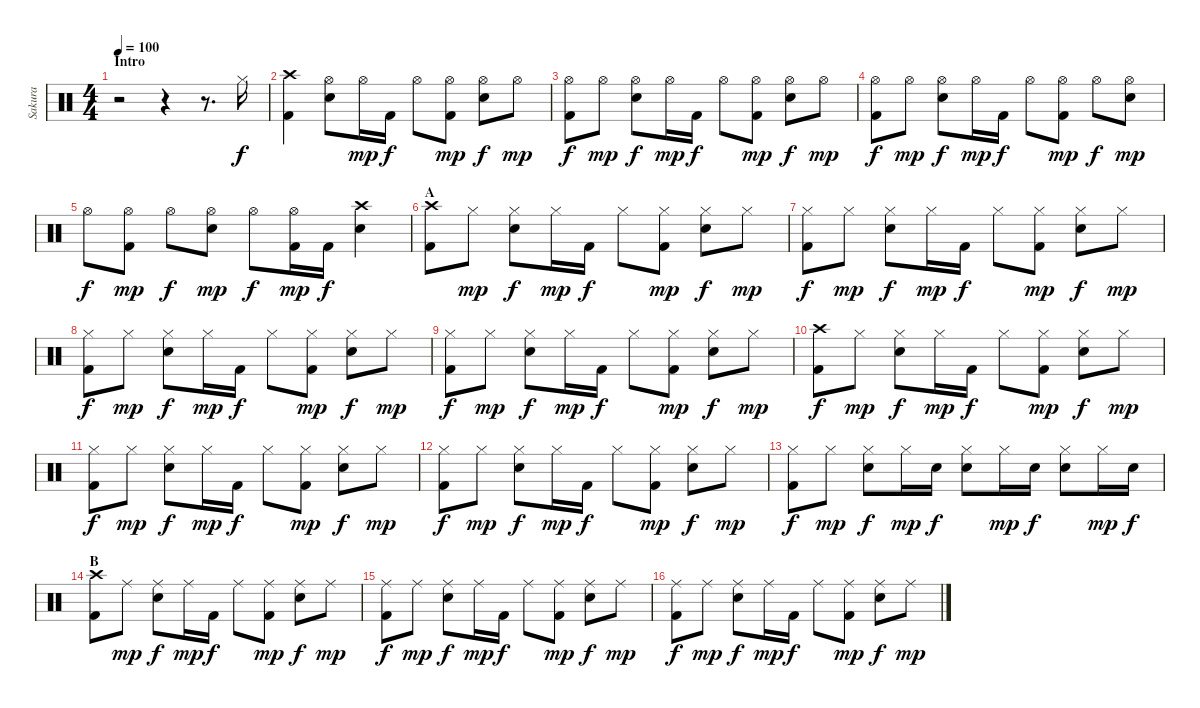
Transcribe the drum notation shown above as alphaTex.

\track ("Sakura" "Sakura") {instrument percussion}
\staff {score}
\articulation defaults
\ts (4 4)
\section ("" "Intro")
\tempo 100
\clef neutral
\ks c
r.2{dy f} r.4 r.8{d} "Hi-Hat (closed)".16 |
("Crash high (hit)" "Kick (hit) 2").4 ("Hi-Hat (open)" "Electric Snare (hit)").8 "Hi-Hat (open)".16{dy mp} "Kick (hit) 2".16{dy f} "Hi-Hat (open)".8 ("Hi-Hat (open)" "Kick (hit) 2").8{dy mp} ("Hi-Hat (open)" "Electric Snare (hit)").8{dy f} "Hi-Hat (open)".8{dy mp} |
("Hi-Hat (open)" "Kick (hit) 2").8{dy f} "Hi-Hat (open)".8{dy mp} ("Hi-Hat (open)" "Electric Snare (hit)").8{dy f} "Hi-Hat (open)".16{dy mp} "Kick (hit) 2".16{dy f} "Hi-Hat (open)".8 ("Hi-Hat (open)" "Kick (hit) 2").8{dy mp} ("Hi-Hat (open)" "Electric Snare (hit)").8{dy f} "Hi-Hat (open)".8{dy mp} |
("Hi-Hat (open)" "Kick (hit) 2").8{dy f} "Hi-Hat (open)".8{dy mp} ("Hi-Hat (open)" "Electric Snare (hit)").8{dy f} "Hi-Hat (open)".16{dy mp} "Kick (hit) 2".16{dy f} "Hi-Hat (open)".8 ("Hi-Hat (open)" "Kick (hit) 2").8{dy mp} "Hi-Hat (open)".8{dy f} ("Hi-Hat (open)" "Electric Snare (hit)").8{dy mp} |
"Hi-Hat (open)".8{dy f} ("Hi-Hat (open)" "Kick (hit) 2").8{dy mp} "Hi-Hat (open)".8{dy f} ("Hi-Hat (open)" "Electric Snare (hit)").8{dy mp} "Hi-Hat (open)".8{dy f} ("Hi-Hat (open)" "Kick (hit) 2").16{dy mp} "Kick (hit) 2".16{dy f} ("Crash high (hit)" "Electric Snare (hit)").4 |
\section ("" "A")
("Crash high (hit)" "Kick (hit) 2").8 "Hi-Hat (closed)".8{dy mp} ("Hi-Hat (closed)" "Electric Snare (hit)").8{dy f} "Hi-Hat (closed)".16{dy mp} "Kick (hit) 2".16{dy f} "Hi-Hat (closed)".8 ("Hi-Hat (closed)" "Kick (hit) 2").8{dy mp} ("Hi-Hat (closed)" "Electric Snare (hit)").8{dy f} "Hi-Hat (closed)".8{dy mp} |
("Hi-Hat (closed)" "Kick (hit) 2").8{dy f} "Hi-Hat (closed)".8{dy mp} ("Hi-Hat (closed)" "Electric Snare (hit)").8{dy f} "Hi-Hat (closed)".16{dy mp} "Kick (hit) 2".16{dy f} "Hi-Hat (closed)".8 ("Hi-Hat (closed)" "Kick (hit) 2").8{dy mp} ("Hi-Hat (closed)" "Electric Snare (hit)").8{dy f} "Hi-Hat (closed)".8{dy mp} |
("Hi-Hat (closed)" "Kick (hit) 2").8{dy f} "Hi-Hat (closed)".8{dy mp} ("Hi-Hat (closed)" "Electric Snare (hit)").8{dy f} "Hi-Hat (closed)".16{dy mp} "Kick (hit) 2".16{dy f} "Hi-Hat (closed)".8 ("Hi-Hat (closed)" "Kick (hit) 2").8{dy mp} ("Hi-Hat (closed)" "Electric Snare (hit)").8{dy f} "Hi-Hat (closed)".8{dy mp} |
("Hi-Hat (closed)" "Kick (hit) 2").8{dy f} "Hi-Hat (closed)".8{dy mp} ("Hi-Hat (closed)" "Electric Snare (hit)").8{dy f} "Hi-Hat (closed)".16{dy mp} "Kick (hit) 2".16{dy f} "Hi-Hat (closed)".8 ("Hi-Hat (closed)" "Kick (hit) 2").8{dy mp} ("Hi-Hat (closed)" "Electric Snare (hit)").8{dy f} "Hi-Hat (closed)".8{dy mp} |
("Crash high (hit)" "Kick (hit) 2").8{dy f} "Hi-Hat (closed)".8{dy mp} ("Hi-Hat (closed)" "Electric Snare (hit)").8{dy f} "Hi-Hat (closed)".16{dy mp} "Kick (hit) 2".16{dy f} "Hi-Hat (closed)".8 ("Hi-Hat (closed)" "Kick (hit) 2").8{dy mp} ("Hi-Hat (closed)" "Electric Snare (hit)").8{dy f} "Hi-Hat (closed)".8{dy mp} |
("Hi-Hat (closed)" "Kick (hit) 2").8{dy f} "Hi-Hat (closed)".8{dy mp} ("Hi-Hat (closed)" "Electric Snare (hit)").8{dy f} "Hi-Hat (closed)".16{dy mp} "Kick (hit) 2".16{dy f} "Hi-Hat (closed)".8 ("Hi-Hat (closed)" "Kick (hit) 2").8{dy mp} ("Hi-Hat (closed)" "Electric Snare (hit)").8{dy f} "Hi-Hat (closed)".8{dy mp} |
("Hi-Hat (closed)" "Kick (hit) 2").8{dy f} "Hi-Hat (closed)".8{dy mp} ("Hi-Hat (closed)" "Electric Snare (hit)").8{dy f} "Hi-Hat (closed)".16{dy mp} "Kick (hit) 2".16{dy f} "Hi-Hat (closed)".8 ("Hi-Hat (closed)" "Kick (hit) 2").8{dy mp} ("Hi-Hat (closed)" "Electric Snare (hit)").8{dy f} "Hi-Hat (closed)".8{dy mp} |
("Hi-Hat (closed)" "Kick (hit) 2").8{dy f} "Hi-Hat (closed)".8{dy mp} ("Hi-Hat (closed)" "Electric Snare (hit)").8{dy f} "Hi-Hat (closed)".16{dy mp} "Electric Snare (hit)".16{dy f} ("Hi-Hat (closed)" "Electric Snare (hit)").8 "Hi-Hat (closed)".16{dy mp} "Electric Snare (hit)".16{dy f} ("Hi-Hat (closed)" "Electric Snare (hit)").8 "Hi-Hat (closed)".16{dy mp} "Electric Snare (hit)".16{dy f} |
\section ("" "B")
("Crash high (hit)" "Kick (hit) 2").8 "Ride (middle)".8{dy mp} ("Ride (middle)" "Electric Snare (hit)").8{dy f} "Ride (middle)".16{dy mp} "Kick (hit) 2".16{dy f} "Ride (middle)".8 ("Ride (middle)" "Kick (hit) 2").8{dy mp} ("Ride (middle)" "Electric Snare (hit)").8{dy f} "Ride (middle)".8{dy mp} |
("Ride (middle)" "Kick (hit) 2").8{dy f} "Ride (middle)".8{dy mp} ("Ride (middle)" "Electric Snare (hit)").8{dy f} "Ride (middle)".16{dy mp} "Kick (hit) 2".16{dy f} "Ride (middle)".8 ("Ride (middle)" "Kick (hit) 2").8{dy mp} ("Ride (middle)" "Electric Snare (hit)").8{dy f} "Ride (middle)".8{dy mp} |
("Ride (middle)" "Kick (hit) 2").8{dy f} "Ride (middle)".8{dy mp} ("Ride (middle)" "Electric Snare (hit)").8{dy f} "Ride (middle)".16{dy mp} "Kick (hit) 2".16{dy f} "Ride (middle)".8 ("Ride (middle)" "Kick (hit) 2").8{dy mp} ("Ride (middle)" "Electric Snare (hit)").8{dy f} "Ride (middle)".8{dy mp}
